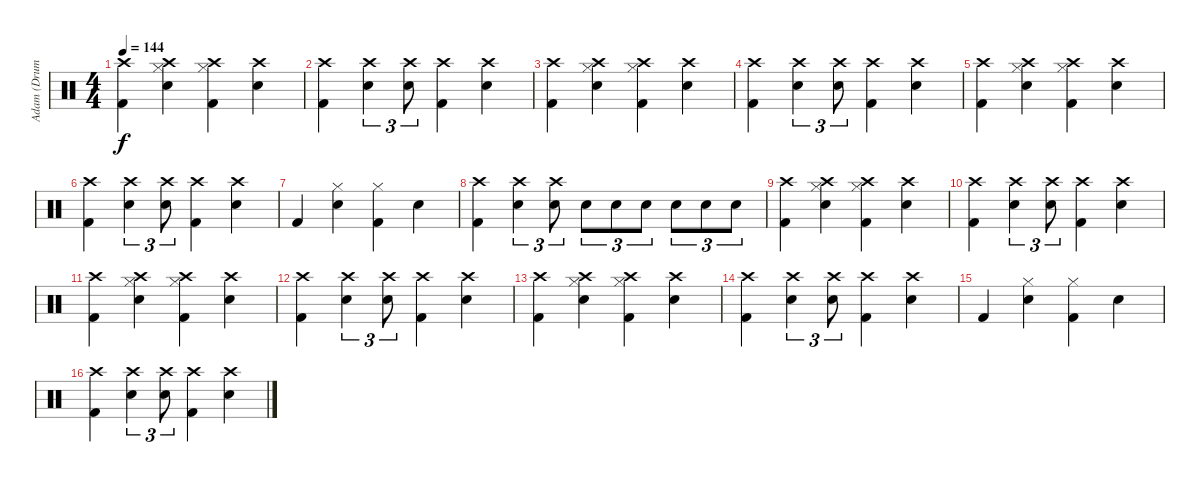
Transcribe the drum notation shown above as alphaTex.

\track ("Adam (Drums)" "Adam (Drum") {instrument percussion}
\staff {score}
\articulation defaults
\ts (4 4)
\tempo 144
\clef neutral
\ks c
("Crash high (hit)" "Kick (hit) 2").4{dy f} ("Hi-Hat (closed)" "Crash high (hit)" "Electric Snare (hit)").4 ("Hi-Hat (closed)" "Crash high (hit)" "Kick (hit) 2").4 ("Crash high (hit)" "Electric Snare (hit)").4 |
("Kick (hit) 2" "Crash high (hit)").4 ("Electric Snare (hit)" "Crash high (hit)").4{tu (3 2)} ("Electric Snare (hit)" "Crash high (hit)").8{tu (3 2)} ("Kick (hit) 2" "Crash high (hit)").4 ("Electric Snare (hit)" "Crash high (hit)").4 |
("Crash high (hit)" "Kick (hit) 2").4 ("Hi-Hat (closed)" "Crash high (hit)" "Electric Snare (hit)").4 ("Hi-Hat (closed)" "Crash high (hit)" "Kick (hit) 2").4 ("Crash high (hit)" "Electric Snare (hit)").4 |
("Kick (hit) 2" "Crash high (hit)").4 ("Electric Snare (hit)" "Crash high (hit)").4{tu (3 2)} ("Electric Snare (hit)" "Crash high (hit)").8{tu (3 2)} ("Kick (hit) 2" "Crash high (hit)").4 ("Electric Snare (hit)" "Crash high (hit)").4 |
("Crash high (hit)" "Kick (hit) 2").4 ("Hi-Hat (closed)" "Crash high (hit)" "Electric Snare (hit)").4 ("Hi-Hat (closed)" "Crash high (hit)" "Kick (hit) 2").4 ("Crash high (hit)" "Electric Snare (hit)").4 |
("Kick (hit) 2" "Crash high (hit)").4 ("Electric Snare (hit)" "Crash high (hit)").4{tu (3 2)} ("Electric Snare (hit)" "Crash high (hit)").8{tu (3 2)} ("Kick (hit) 2" "Crash high (hit)").4 ("Electric Snare (hit)" "Crash high (hit)").4 |
"Kick (hit) 2".4 ("Hi-Hat (closed)" "Electric Snare (hit)").4 ("Hi-Hat (closed)" "Kick (hit) 2").4 "Electric Snare (hit)".4 |
("Kick (hit) 2" "Crash high (hit)").4 ("Electric Snare (hit)" "Crash high (hit)").4{tu (3 2)} ("Electric Snare (hit)" "Crash high (hit)").8{tu (3 2)} "Electric Snare (hit)".8{tu (3 2)} "Electric Snare (hit)".8{tu (3 2)} "Electric Snare (hit)".8{tu (3 2)} "Electric Snare (hit)".8{tu (3 2)} "Electric Snare (hit)".8{tu (3 2)} "Electric Snare (hit)".8{tu (3 2)} |
("Crash high (hit)" "Kick (hit) 2").4 ("Hi-Hat (closed)" "Crash high (hit)" "Electric Snare (hit)").4 ("Hi-Hat (closed)" "Crash high (hit)" "Kick (hit) 2").4 ("Crash high (hit)" "Electric Snare (hit)").4 |
("Kick (hit) 2" "Crash high (hit)").4 ("Electric Snare (hit)" "Crash high (hit)").4{tu (3 2)} ("Electric Snare (hit)" "Crash high (hit)").8{tu (3 2)} ("Kick (hit) 2" "Crash high (hit)").4 ("Electric Snare (hit)" "Crash high (hit)").4 |
("Crash high (hit)" "Kick (hit) 2").4 ("Hi-Hat (closed)" "Crash high (hit)" "Electric Snare (hit)").4 ("Hi-Hat (closed)" "Crash high (hit)" "Kick (hit) 2").4 ("Crash high (hit)" "Electric Snare (hit)").4 |
("Kick (hit) 2" "Crash high (hit)").4 ("Electric Snare (hit)" "Crash high (hit)").4{tu (3 2)} ("Electric Snare (hit)" "Crash high (hit)").8{tu (3 2)} ("Kick (hit) 2" "Crash high (hit)").4 ("Electric Snare (hit)" "Crash high (hit)").4 |
("Crash high (hit)" "Kick (hit) 2").4 ("Hi-Hat (closed)" "Crash high (hit)" "Electric Snare (hit)").4 ("Hi-Hat (closed)" "Crash high (hit)" "Kick (hit) 2").4 ("Crash high (hit)" "Electric Snare (hit)").4 |
("Kick (hit) 2" "Crash high (hit)").4 ("Electric Snare (hit)" "Crash high (hit)").4{tu (3 2)} ("Electric Snare (hit)" "Crash high (hit)").8{tu (3 2)} ("Kick (hit) 2" "Crash high (hit)").4 ("Electric Snare (hit)" "Crash high (hit)").4 |
"Kick (hit) 2".4 ("Hi-Hat (closed)" "Electric Snare (hit)").4 ("Hi-Hat (closed)" "Kick (hit) 2").4 "Electric Snare (hit)".4 |
("Kick (hit) 2" "Crash high (hit)").4 ("Electric Snare (hit)" "Crash high (hit)").4{tu (3 2)} ("Electric Snare (hit)" "Crash high (hit)").8{tu (3 2)} ("Kick (hit) 2" "Crash high (hit)").4 ("Electric Snare (hit)" "Crash high (hit)").4
